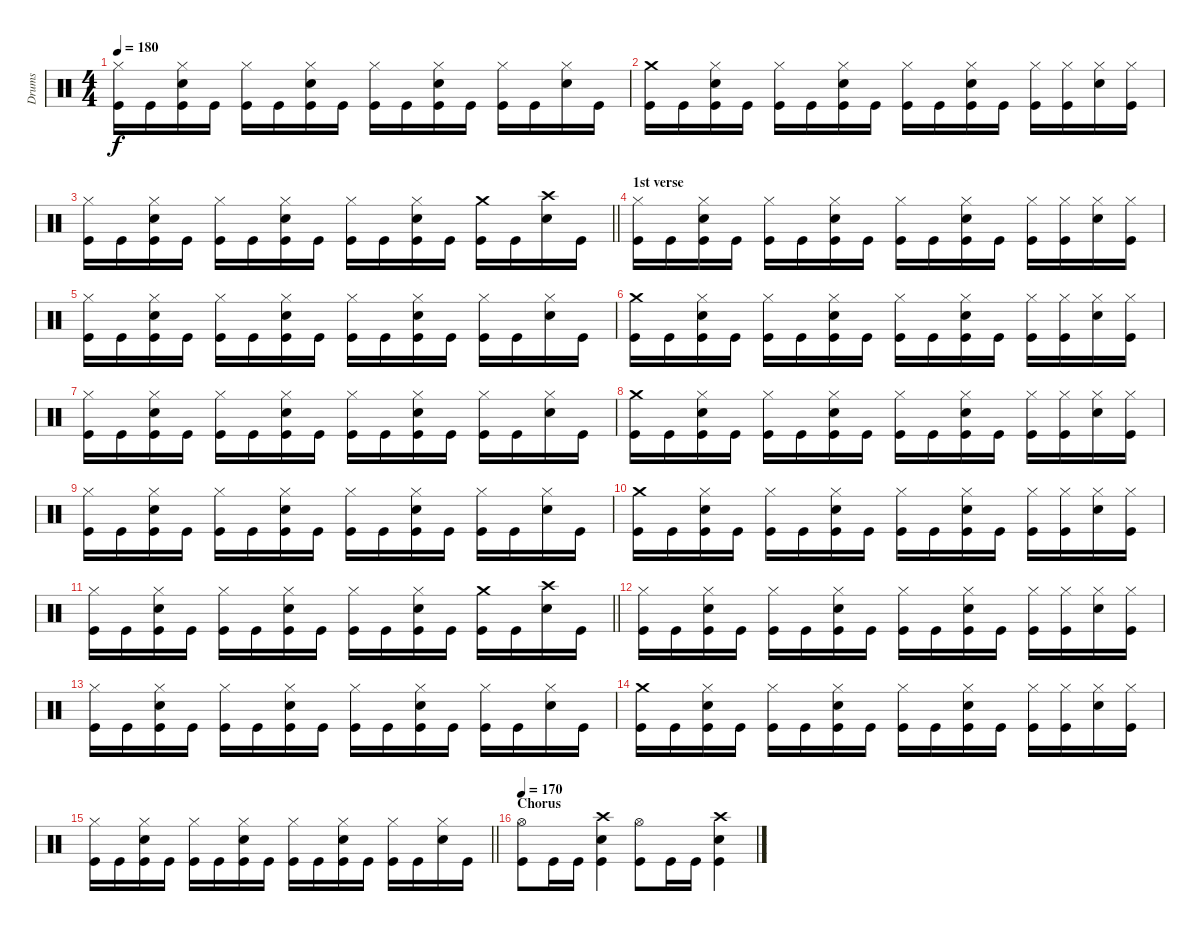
\track ("Drums" "Drums") {instrument percussion}
\staff {score}
\articulation defaults
\ts (4 4)
\tempo 180
\clef neutral
\ks c
("Hi-Hat (closed)" "Kick (hit)").16{dy f} "Kick (hit)".16 ("Hi-Hat (closed)" "Snare (hit) 2" "Kick (hit)").16 "Kick (hit)".16 ("Hi-Hat (closed)" "Kick (hit)").16 "Kick (hit)".16 ("Hi-Hat (closed)" "Snare (hit) 2" "Kick (hit)").16 "Kick (hit)".16 ("Hi-Hat (closed)" "Kick (hit)").16 "Kick (hit)".16 ("Hi-Hat (closed)" "Snare (hit) 2" "Kick (hit)").16 "Kick (hit)".16 ("Hi-Hat (closed)" "Kick (hit)").16 "Kick (hit)".16 ("Hi-Hat (closed)" "Snare (hit) 2").16 "Kick (hit)".16 |
("Crash medium (hit)" "Kick (hit)").16 "Kick (hit)".16 ("Hi-Hat (closed)" "Snare (hit) 2" "Kick (hit)").16 "Kick (hit)".16 ("Hi-Hat (closed)" "Kick (hit)").16 "Kick (hit)".16 ("Hi-Hat (closed)" "Snare (hit) 2" "Kick (hit)").16 "Kick (hit)".16 ("Hi-Hat (closed)" "Kick (hit)").16 "Kick (hit)".16 ("Hi-Hat (closed)" "Snare (hit) 2" "Kick (hit)").16 "Kick (hit)".16 ("Hi-Hat (closed)" "Kick (hit)").16 ("Hi-Hat (closed)" "Kick (hit)").16 ("Hi-Hat (closed)" "Snare (hit) 2").16 ("Hi-Hat (closed)" "Kick (hit)").16 |
\barLineRight lightlight
("Hi-Hat (closed)" "Kick (hit)").16 "Kick (hit)".16 ("Hi-Hat (closed)" "Snare (hit) 2" "Kick (hit)").16 "Kick (hit)".16 ("Hi-Hat (closed)" "Kick (hit)").16 "Kick (hit)".16 ("Hi-Hat (closed)" "Snare (hit) 2" "Kick (hit)").16 "Kick (hit)".16 ("Hi-Hat (closed)" "Kick (hit)").16 "Kick (hit)".16 ("Hi-Hat (closed)" "Snare (hit) 2" "Kick (hit)").16 "Kick (hit)".16 ("Crash medium (hit)" "Kick (hit)").16 "Kick (hit)".16 ("Crash high (hit)" "Snare (hit) 2").16 "Kick (hit)".16 |
\section ("" "1st verse")
("Hi-Hat (closed)" "Kick (hit)").16 "Kick (hit)".16 ("Hi-Hat (closed)" "Snare (hit) 2" "Kick (hit)").16 "Kick (hit)".16 ("Hi-Hat (closed)" "Kick (hit)").16 "Kick (hit)".16 ("Hi-Hat (closed)" "Snare (hit) 2" "Kick (hit)").16 "Kick (hit)".16 ("Hi-Hat (closed)" "Kick (hit)").16 "Kick (hit)".16 ("Hi-Hat (closed)" "Snare (hit) 2" "Kick (hit)").16 "Kick (hit)".16 ("Hi-Hat (closed)" "Kick (hit)").16 ("Hi-Hat (closed)" "Kick (hit)").16 ("Hi-Hat (closed)" "Snare (hit) 2").16 ("Hi-Hat (closed)" "Kick (hit)").16 |
("Hi-Hat (closed)" "Kick (hit)").16 "Kick (hit)".16 ("Hi-Hat (closed)" "Snare (hit) 2" "Kick (hit)").16 "Kick (hit)".16 ("Hi-Hat (closed)" "Kick (hit)").16 "Kick (hit)".16 ("Hi-Hat (closed)" "Snare (hit) 2" "Kick (hit)").16 "Kick (hit)".16 ("Hi-Hat (closed)" "Kick (hit)").16 "Kick (hit)".16 ("Hi-Hat (closed)" "Snare (hit) 2" "Kick (hit)").16 "Kick (hit)".16 ("Hi-Hat (closed)" "Kick (hit)").16 "Kick (hit)".16 ("Hi-Hat (closed)" "Snare (hit) 2").16 "Kick (hit)".16 |
("Crash medium (hit)" "Kick (hit)").16 "Kick (hit)".16 ("Hi-Hat (closed)" "Snare (hit) 2" "Kick (hit)").16 "Kick (hit)".16 ("Hi-Hat (closed)" "Kick (hit)").16 "Kick (hit)".16 ("Hi-Hat (closed)" "Snare (hit) 2" "Kick (hit)").16 "Kick (hit)".16 ("Hi-Hat (closed)" "Kick (hit)").16 "Kick (hit)".16 ("Hi-Hat (closed)" "Snare (hit) 2" "Kick (hit)").16 "Kick (hit)".16 ("Hi-Hat (closed)" "Kick (hit)").16 ("Hi-Hat (closed)" "Kick (hit)").16 ("Hi-Hat (closed)" "Snare (hit) 2").16 ("Hi-Hat (closed)" "Kick (hit)").16 |
("Hi-Hat (closed)" "Kick (hit)").16 "Kick (hit)".16 ("Hi-Hat (closed)" "Snare (hit) 2" "Kick (hit)").16 "Kick (hit)".16 ("Hi-Hat (closed)" "Kick (hit)").16 "Kick (hit)".16 ("Hi-Hat (closed)" "Snare (hit) 2" "Kick (hit)").16 "Kick (hit)".16 ("Hi-Hat (closed)" "Kick (hit)").16 "Kick (hit)".16 ("Hi-Hat (closed)" "Snare (hit) 2" "Kick (hit)").16 "Kick (hit)".16 ("Hi-Hat (closed)" "Kick (hit)").16 "Kick (hit)".16 ("Hi-Hat (closed)" "Snare (hit) 2").16 "Kick (hit)".16 |
("Crash medium (hit)" "Kick (hit)").16 "Kick (hit)".16 ("Hi-Hat (closed)" "Snare (hit) 2" "Kick (hit)").16 "Kick (hit)".16 ("Hi-Hat (closed)" "Kick (hit)").16 "Kick (hit)".16 ("Hi-Hat (closed)" "Snare (hit) 2" "Kick (hit)").16 "Kick (hit)".16 ("Hi-Hat (closed)" "Kick (hit)").16 "Kick (hit)".16 ("Hi-Hat (closed)" "Snare (hit) 2" "Kick (hit)").16 "Kick (hit)".16 ("Hi-Hat (closed)" "Kick (hit)").16 ("Hi-Hat (closed)" "Kick (hit)").16 ("Hi-Hat (closed)" "Snare (hit) 2").16 ("Hi-Hat (closed)" "Kick (hit)").16 |
("Hi-Hat (closed)" "Kick (hit)").16 "Kick (hit)".16 ("Hi-Hat (closed)" "Snare (hit) 2" "Kick (hit)").16 "Kick (hit)".16 ("Hi-Hat (closed)" "Kick (hit)").16 "Kick (hit)".16 ("Hi-Hat (closed)" "Snare (hit) 2" "Kick (hit)").16 "Kick (hit)".16 ("Hi-Hat (closed)" "Kick (hit)").16 "Kick (hit)".16 ("Hi-Hat (closed)" "Snare (hit) 2" "Kick (hit)").16 "Kick (hit)".16 ("Hi-Hat (closed)" "Kick (hit)").16 "Kick (hit)".16 ("Hi-Hat (closed)" "Snare (hit) 2").16 "Kick (hit)".16 |
("Crash medium (hit)" "Kick (hit)").16 "Kick (hit)".16 ("Hi-Hat (closed)" "Snare (hit) 2" "Kick (hit)").16 "Kick (hit)".16 ("Hi-Hat (closed)" "Kick (hit)").16 "Kick (hit)".16 ("Hi-Hat (closed)" "Snare (hit) 2" "Kick (hit)").16 "Kick (hit)".16 ("Hi-Hat (closed)" "Kick (hit)").16 "Kick (hit)".16 ("Hi-Hat (closed)" "Snare (hit) 2" "Kick (hit)").16 "Kick (hit)".16 ("Hi-Hat (closed)" "Kick (hit)").16 ("Hi-Hat (closed)" "Kick (hit)").16 ("Hi-Hat (closed)" "Snare (hit) 2").16 ("Hi-Hat (closed)" "Kick (hit)").16 |
\barLineRight lightlight
("Hi-Hat (closed)" "Kick (hit)").16 "Kick (hit)".16 ("Hi-Hat (closed)" "Snare (hit) 2" "Kick (hit)").16 "Kick (hit)".16 ("Hi-Hat (closed)" "Kick (hit)").16 "Kick (hit)".16 ("Hi-Hat (closed)" "Snare (hit) 2" "Kick (hit)").16 "Kick (hit)".16 ("Hi-Hat (closed)" "Kick (hit)").16 "Kick (hit)".16 ("Hi-Hat (closed)" "Snare (hit) 2" "Kick (hit)").16 "Kick (hit)".16 ("Crash medium (hit)" "Kick (hit)").16 "Kick (hit)".16 ("Crash high (hit)" "Snare (hit) 2").16 "Kick (hit)".16 |
("Hi-Hat (closed)" "Kick (hit)").16 "Kick (hit)".16 ("Hi-Hat (closed)" "Snare (hit) 2" "Kick (hit)").16 "Kick (hit)".16 ("Hi-Hat (closed)" "Kick (hit)").16 "Kick (hit)".16 ("Hi-Hat (closed)" "Snare (hit) 2" "Kick (hit)").16 "Kick (hit)".16 ("Hi-Hat (closed)" "Kick (hit)").16 "Kick (hit)".16 ("Hi-Hat (closed)" "Snare (hit) 2" "Kick (hit)").16 "Kick (hit)".16 ("Hi-Hat (closed)" "Kick (hit)").16 ("Hi-Hat (closed)" "Kick (hit)").16 ("Hi-Hat (closed)" "Snare (hit) 2").16 ("Hi-Hat (closed)" "Kick (hit)").16 |
("Hi-Hat (closed)" "Kick (hit)").16 "Kick (hit)".16 ("Hi-Hat (closed)" "Snare (hit) 2" "Kick (hit)").16 "Kick (hit)".16 ("Hi-Hat (closed)" "Kick (hit)").16 "Kick (hit)".16 ("Hi-Hat (closed)" "Snare (hit) 2" "Kick (hit)").16 "Kick (hit)".16 ("Hi-Hat (closed)" "Kick (hit)").16 "Kick (hit)".16 ("Hi-Hat (closed)" "Snare (hit) 2" "Kick (hit)").16 "Kick (hit)".16 ("Hi-Hat (closed)" "Kick (hit)").16 "Kick (hit)".16 ("Hi-Hat (closed)" "Snare (hit) 2").16 "Kick (hit)".16 |
("Crash medium (hit)" "Kick (hit)").16 "Kick (hit)".16 ("Hi-Hat (closed)" "Snare (hit) 2" "Kick (hit)").16 "Kick (hit)".16 ("Hi-Hat (closed)" "Kick (hit)").16 "Kick (hit)".16 ("Hi-Hat (closed)" "Snare (hit) 2" "Kick (hit)").16 "Kick (hit)".16 ("Hi-Hat (closed)" "Kick (hit)").16 "Kick (hit)".16 ("Hi-Hat (closed)" "Snare (hit) 2" "Kick (hit)").16 "Kick (hit)".16 ("Hi-Hat (closed)" "Kick (hit)").16 ("Hi-Hat (closed)" "Kick (hit)").16 ("Hi-Hat (closed)" "Snare (hit) 2").16 ("Hi-Hat (closed)" "Kick (hit)").16 |
\barLineRight lightlight
("Hi-Hat (closed)" "Kick (hit)").16 "Kick (hit)".16 ("Hi-Hat (closed)" "Snare (hit) 2" "Kick (hit)").16 "Kick (hit)".16 ("Hi-Hat (closed)" "Kick (hit)").16 "Kick (hit)".16 ("Hi-Hat (closed)" "Snare (hit) 2" "Kick (hit)").16 "Kick (hit)".16 ("Hi-Hat (closed)" "Kick (hit)").16 "Kick (hit)".16 ("Hi-Hat (closed)" "Snare (hit) 2" "Kick (hit)").16 "Kick (hit)".16 ("Hi-Hat (closed)" "Kick (hit)").16 "Kick (hit)".16 ("Hi-Hat (closed)" "Snare (hit) 2").16 "Kick (hit)".16 |
\section ("" "Chorus")
\tempo 170
("Hi-Hat (open)" "Kick (hit)").8 "Kick (hit)".16 "Kick (hit)".16 ("Crash high (hit)" "Snare (hit) 2" "Kick (hit)").4 ("Hi-Hat (open)" "Kick (hit)").8 "Kick (hit)".16 "Kick (hit)".16 ("Crash high (hit)" "Snare (hit) 2" "Kick (hit)").4
